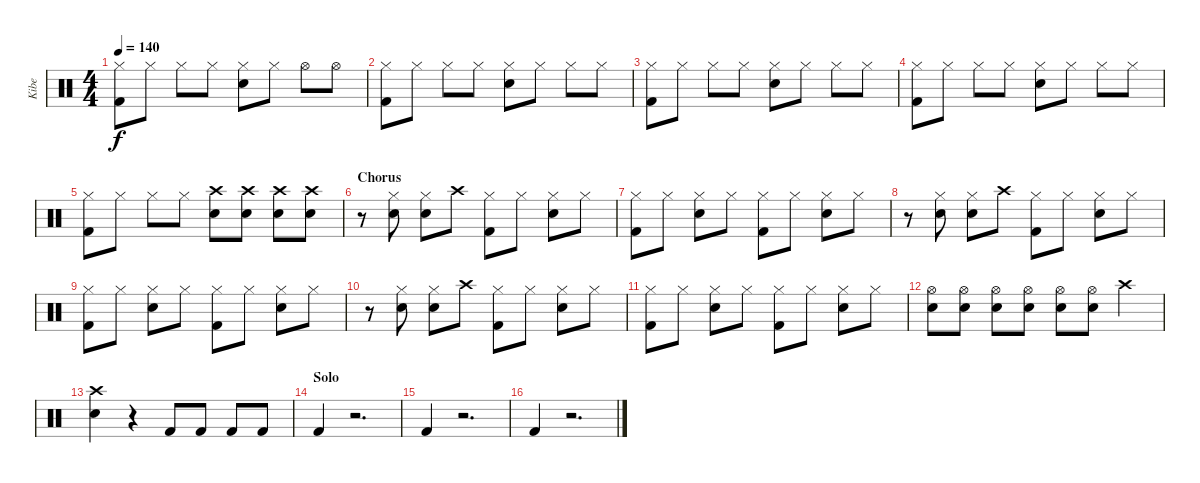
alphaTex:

\track ("Kibe" "Kibe") {instrument percussion}
\staff {score}
\articulation defaults
\ts (4 4)
\tempo 140
\clef neutral
\ks c
("Hi-Hat (closed)" "Kick (hit) 2").8{dy f} "Hi-Hat (closed)".8 "Hi-Hat (closed)".8 "Hi-Hat (closed)".8 ("Hi-Hat (closed)" "Snare (hit) 2").8 "Hi-Hat (closed)".8 "Hi-Hat (open)".8 "Hi-Hat (open)".8 |
("Hi-Hat (closed)" "Kick (hit) 2").8 "Hi-Hat (closed)".8 "Hi-Hat (closed)".8 "Hi-Hat (closed)".8 ("Hi-Hat (closed)" "Snare (hit) 2").8 "Hi-Hat (closed)".8 "Hi-Hat (closed)".8 "Hi-Hat (closed)".8 |
("Hi-Hat (closed)" "Kick (hit) 2").8 "Hi-Hat (closed)".8 "Hi-Hat (closed)".8 "Hi-Hat (closed)".8 ("Hi-Hat (closed)" "Snare (hit) 2").8 "Hi-Hat (closed)".8 "Hi-Hat (closed)".8 "Hi-Hat (closed)".8 |
("Hi-Hat (closed)" "Kick (hit) 2").8 "Hi-Hat (closed)".8 "Hi-Hat (closed)".8 "Hi-Hat (closed)".8 ("Hi-Hat (closed)" "Snare (hit) 2").8 "Hi-Hat (closed)".8 "Hi-Hat (closed)".8 "Hi-Hat (closed)".8 |
("Hi-Hat (closed)" "Kick (hit) 2").8 "Hi-Hat (closed)".8 "Hi-Hat (closed)".8 "Hi-Hat (closed)".8 ("Crash high (hit)" "Snare (hit) 2").8 ("Crash high (hit)" "Snare (hit) 2").8 ("Crash high (hit)" "Snare (hit) 2").8 ("Crash high (hit)" "Snare (hit) 2").8 |
\section ("" "Chorus")
r.8 ("Hi-Hat (closed)" "Snare (hit) 2").8 ("Hi-Hat (closed)" "Snare (hit) 2").8 "Crash high (hit)".8 ("Hi-Hat (closed)" "Kick (hit) 2").8 "Hi-Hat (closed)".8 ("Hi-Hat (closed)" "Snare (hit) 2").8 "Hi-Hat (closed)".8 |
("Hi-Hat (closed)" "Kick (hit) 2").8 "Hi-Hat (closed)".8 ("Hi-Hat (closed)" "Snare (hit) 2").8 "Hi-Hat (closed)".8 ("Hi-Hat (closed)" "Kick (hit) 2").8 "Hi-Hat (closed)".8 ("Hi-Hat (closed)" "Snare (hit) 2").8 "Hi-Hat (closed)".8 |
r.8 ("Hi-Hat (closed)" "Snare (hit) 2").8 ("Hi-Hat (closed)" "Snare (hit) 2").8 "Crash high (hit)".8 ("Hi-Hat (closed)" "Kick (hit) 2").8 "Hi-Hat (closed)".8 ("Hi-Hat (closed)" "Snare (hit) 2").8 "Hi-Hat (closed)".8 |
("Hi-Hat (closed)" "Kick (hit) 2").8 "Hi-Hat (closed)".8 ("Hi-Hat (closed)" "Snare (hit) 2").8 "Hi-Hat (closed)".8 ("Hi-Hat (closed)" "Kick (hit) 2").8 "Hi-Hat (closed)".8 ("Hi-Hat (closed)" "Snare (hit) 2").8 "Hi-Hat (closed)".8 |
r.8 ("Hi-Hat (closed)" "Snare (hit) 2").8 ("Hi-Hat (closed)" "Snare (hit) 2").8 "Crash high (hit)".8 ("Hi-Hat (closed)" "Kick (hit) 2").8 "Hi-Hat (closed)".8 ("Hi-Hat (closed)" "Snare (hit) 2").8 "Hi-Hat (closed)".8 |
("Hi-Hat (closed)" "Kick (hit) 2").8 "Hi-Hat (closed)".8 ("Hi-Hat (closed)" "Snare (hit) 2").8 "Hi-Hat (closed)".8 ("Hi-Hat (closed)" "Kick (hit) 2").8 "Hi-Hat (closed)".8 ("Hi-Hat (closed)" "Snare (hit) 2").8 "Hi-Hat (closed)".8 |
("Snare (hit) 2" "Hi-Hat (open)").8 ("Snare (hit) 2" "Hi-Hat (open)").8 ("Snare (hit) 2" "Hi-Hat (open)").8 ("Snare (hit) 2" "Hi-Hat (open)").8 ("Snare (hit) 2" "Hi-Hat (open)").8 ("Snare (hit) 2" "Hi-Hat (open)").8 "Crash high (hit)".4 |
("Crash high (hit)" "Snare (hit) 2").4 r.4 "Kick (hit) 2".8 "Kick (hit) 2".8 "Kick (hit) 2".8 "Kick (hit) 2".8 |
\section ("" "Solo")
"Kick (hit) 2".4 r.2{d} |
"Kick (hit) 2".4 r.2{d} |
"Kick (hit) 2".4 r.2{d}
